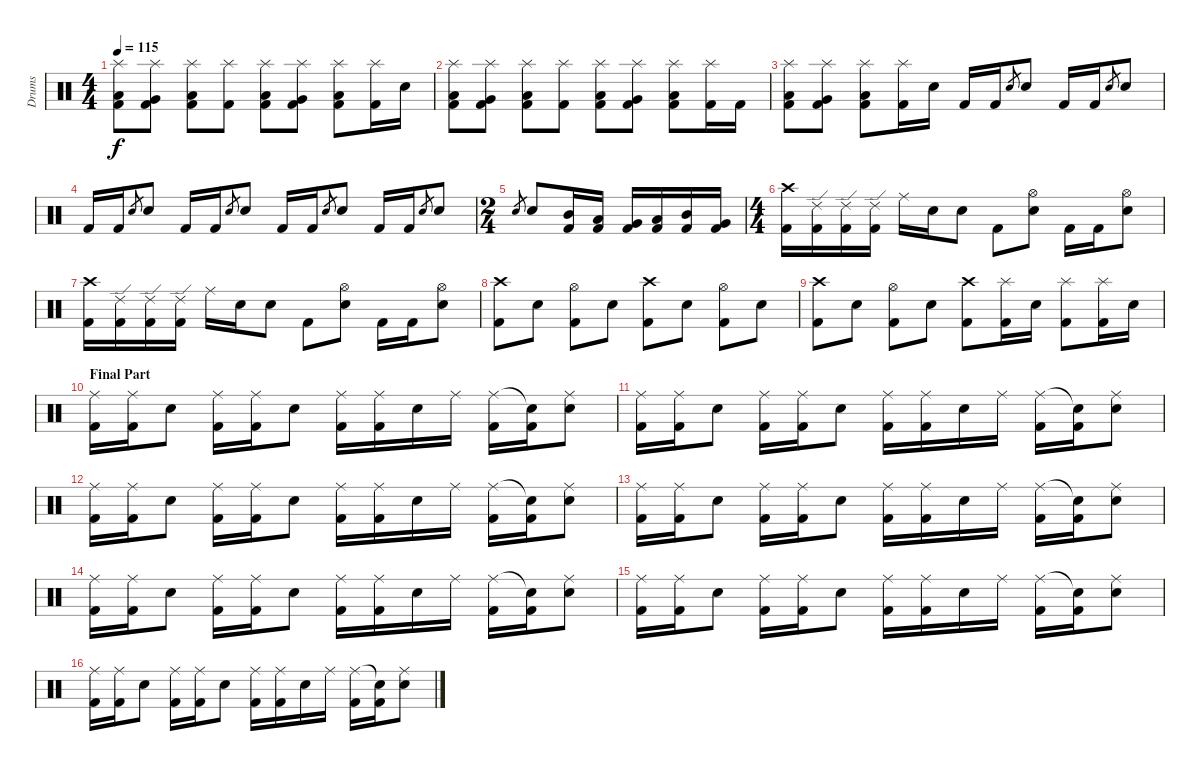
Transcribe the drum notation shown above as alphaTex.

\track ("Drums" "Drums") {instrument percussion}
\staff {score}
\articulation defaults
\ts (4 4)
\tempo 115
\clef neutral
\ks c
("Splash (hit)" "Low Tom (hit)" "Kick (hit) 2").8{dy f} ("Splash (hit)" "Very Low Tom (hit)" "Kick (hit) 2").8 ("Splash (hit)" "Low Floor Tom (hit)" "Kick (hit) 2").8 ("Splash (hit)" "Kick (hit) 2").8 ("Splash (hit)" "Low Tom (hit)" "Kick (hit) 2").8 ("Splash (hit)" "Very Low Tom (hit)" "Kick (hit) 2").8 ("Splash (hit)" "Low Floor Tom (hit)" "Kick (hit) 2").8 ("Splash (hit)" "Kick (hit) 2").16 "Snare (hit) 2".16 |
("Splash (hit)" "Low Tom (hit)" "Kick (hit) 2").8 ("Splash (hit)" "Very Low Tom (hit)" "Kick (hit) 2").8 ("Splash (hit)" "Low Floor Tom (hit)" "Kick (hit) 2").8 ("Splash (hit)" "Kick (hit) 2").8 ("Splash (hit)" "Low Tom (hit)" "Kick (hit) 2").8 ("Splash (hit)" "Very Low Tom (hit)" "Kick (hit) 2").8 ("Splash (hit)" "Low Floor Tom (hit)" "Kick (hit) 2").8 ("Splash (hit)" "Kick (hit) 2").16 "Kick (hit) 2".16 |
("Splash (hit)" "Low Tom (hit)" "Kick (hit) 2").8 ("Splash (hit)" "Very Low Tom (hit)" "Kick (hit) 2").8 ("Splash (hit)" "Low Floor Tom (hit)" "Kick (hit) 2").8 ("Splash (hit)" "Kick (hit) 2").16 "Snare (hit) 2".16 "Kick (hit) 2".16 "Kick (hit) 2".16 "Snare (hit) 2".8{gr} "Snare (hit) 2".8 "Kick (hit) 2".16 "Kick (hit) 2".16 "Snare (hit) 2".8{gr} "Snare (hit) 2".8 |
"Kick (hit) 2".16 "Kick (hit) 2".16 "Snare (hit) 2".8{gr} "Snare (hit) 2".8 "Kick (hit) 2".16 "Kick (hit) 2".16 "Snare (hit) 2".8{gr} "Snare (hit) 2".8 "Kick (hit) 2".16 "Kick (hit) 2".16 "Snare (hit) 2".8{gr} "Snare (hit) 2".8 "Kick (hit) 2".16 "Kick (hit) 2".16 "Snare (hit) 2".8{gr} "Snare (hit) 2".8 |
\ts (2 4)
"Snare (hit) 2".8{gr} "Snare (hit) 2".8 ("Mid Tom (hit)" "Kick (hit) 2").16 ("Low Tom (hit)" "Kick (hit) 2").16 ("Very Low Tom (hit)" "Kick (hit) 2").16 ("Low Floor Tom (hit)" "Kick (hit) 2").16 ("Mid Tom (hit)" "Kick (hit) 2").16 ("Very Low Tom (hit)" "Kick (hit) 2").16 |
\ts (4 4)
("Crash high (hit)" "Kick (hit) 2").16 ("Ride (edge) 2" "Kick (hit) 2").16 ("Ride (edge) 2" "Kick (hit) 2").16 ("Ride (edge) 2" "Kick (hit) 2").16 "Ride (middle)".16 "Electric Snare (hit)".16 "Snare (hit) 2".8 "Kick (hit) 2".8 ("Hi-Hat (open)" "Electric Snare (hit)").8 "Kick (hit) 2".16 "Kick (hit) 2".16 ("Hi-Hat (open)" "Electric Snare (hit)").8 |
("Crash high (hit)" "Kick (hit) 2").16 ("Ride (edge) 2" "Kick (hit) 2").16 ("Ride (edge) 2" "Kick (hit) 2").16 ("Ride (edge) 2" "Kick (hit) 2").16 "Ride (middle)".16 "Electric Snare (hit)".16 "Snare (hit) 2".8 "Kick (hit) 2".8 ("Hi-Hat (open)" "Electric Snare (hit)").8 "Kick (hit) 2".16 "Kick (hit) 2".16 ("Hi-Hat (open)" "Electric Snare (hit)").8 |
("Crash high (hit)" "Kick (hit) 2").8 "Electric Snare (hit)".8 ("Hi-Hat (open)" "Kick (hit) 2").8 "Electric Snare (hit)".8 ("Crash high (hit)" "Kick (hit) 2").8 "Electric Snare (hit)".8 ("Hi-Hat (open)" "Kick (hit) 2").8 "Electric Snare (hit)".8 |
("Crash high (hit)" "Kick (hit) 2").8 "Electric Snare (hit)".8 ("Hi-Hat (open)" "Kick (hit) 2").8 "Electric Snare (hit)".8 ("Crash high (hit)" "Kick (hit) 2").8 ("Splash (hit)" "Kick (hit) 2").16 "Snare (hit) 2".16 ("Splash (hit)" "Kick (hit) 2").8 ("Splash (hit)" "Kick (hit) 2").16 "Snare (hit) 2".16 |
\section ("" "Final Part")
("Ride (middle)" "Kick (hit) 2").16 ("Ride (middle)" "Kick (hit) 2").16 "Electric Snare (hit)".8 ("Ride (middle)" "Kick (hit) 2").16 ("Ride (middle)" "Kick (hit) 2").16 "Electric Snare (hit)".8 ("Ride (middle)" "Kick (hit) 2").16 ("Ride (middle)" "Kick (hit) 2").16 "Electric Snare (hit)".16 "Ride (middle)".16 ("Ride (middle)" "Kick (hit) 2").16 ("Snare (hit)"{t} "Kick (hit) 2").16 ("Ride (middle)" "Electric Snare (hit)").8 |
("Ride (middle)" "Kick (hit) 2").16 ("Ride (middle)" "Kick (hit) 2").16 "Electric Snare (hit)".8 ("Ride (middle)" "Kick (hit) 2").16 ("Ride (middle)" "Kick (hit) 2").16 "Electric Snare (hit)".8 ("Ride (middle)" "Kick (hit) 2").16 ("Ride (middle)" "Kick (hit) 2").16 "Electric Snare (hit)".16 "Ride (middle)".16 ("Ride (middle)" "Kick (hit) 2").16 ("Snare (hit)"{t} "Kick (hit) 2").16 ("Ride (middle)" "Electric Snare (hit)").8 |
("Ride (middle)" "Kick (hit) 2").16 ("Ride (middle)" "Kick (hit) 2").16 "Electric Snare (hit)".8 ("Ride (middle)" "Kick (hit) 2").16 ("Ride (middle)" "Kick (hit) 2").16 "Electric Snare (hit)".8 ("Ride (middle)" "Kick (hit) 2").16 ("Ride (middle)" "Kick (hit) 2").16 "Electric Snare (hit)".16 "Ride (middle)".16 ("Ride (middle)" "Kick (hit) 2").16 ("Snare (hit)"{t} "Kick (hit) 2").16 ("Ride (middle)" "Electric Snare (hit)").8 |
("Ride (middle)" "Kick (hit) 2").16 ("Ride (middle)" "Kick (hit) 2").16 "Electric Snare (hit)".8 ("Ride (middle)" "Kick (hit) 2").16 ("Ride (middle)" "Kick (hit) 2").16 "Electric Snare (hit)".8 ("Ride (middle)" "Kick (hit) 2").16 ("Ride (middle)" "Kick (hit) 2").16 "Electric Snare (hit)".16 "Ride (middle)".16 ("Ride (middle)" "Kick (hit) 2").16 ("Snare (hit)"{t} "Kick (hit) 2").16 ("Ride (middle)" "Electric Snare (hit)").8 |
("Ride (middle)" "Kick (hit) 2").16 ("Ride (middle)" "Kick (hit) 2").16 "Electric Snare (hit)".8 ("Ride (middle)" "Kick (hit) 2").16 ("Ride (middle)" "Kick (hit) 2").16 "Electric Snare (hit)".8 ("Ride (middle)" "Kick (hit) 2").16 ("Ride (middle)" "Kick (hit) 2").16 "Electric Snare (hit)".16 "Ride (middle)".16 ("Ride (middle)" "Kick (hit) 2").16 ("Snare (hit)"{t} "Kick (hit) 2").16 ("Ride (middle)" "Electric Snare (hit)").8 |
("Ride (middle)" "Kick (hit) 2").16 ("Ride (middle)" "Kick (hit) 2").16 "Electric Snare (hit)".8 ("Ride (middle)" "Kick (hit) 2").16 ("Ride (middle)" "Kick (hit) 2").16 "Electric Snare (hit)".8 ("Ride (middle)" "Kick (hit) 2").16 ("Ride (middle)" "Kick (hit) 2").16 "Electric Snare (hit)".16 "Ride (middle)".16 ("Ride (middle)" "Kick (hit) 2").16 ("Snare (hit)"{t} "Kick (hit) 2").16 ("Ride (middle)" "Electric Snare (hit)").8 |
("Ride (middle)" "Kick (hit) 2").16 ("Ride (middle)" "Kick (hit) 2").16 "Electric Snare (hit)".8 ("Ride (middle)" "Kick (hit) 2").16 ("Ride (middle)" "Kick (hit) 2").16 "Electric Snare (hit)".8 ("Ride (middle)" "Kick (hit) 2").16 ("Ride (middle)" "Kick (hit) 2").16 "Electric Snare (hit)".16 "Ride (middle)".16 ("Ride (middle)" "Kick (hit) 2").16 ("Snare (hit)"{t} "Kick (hit) 2").16 ("Ride (middle)" "Electric Snare (hit)").8
